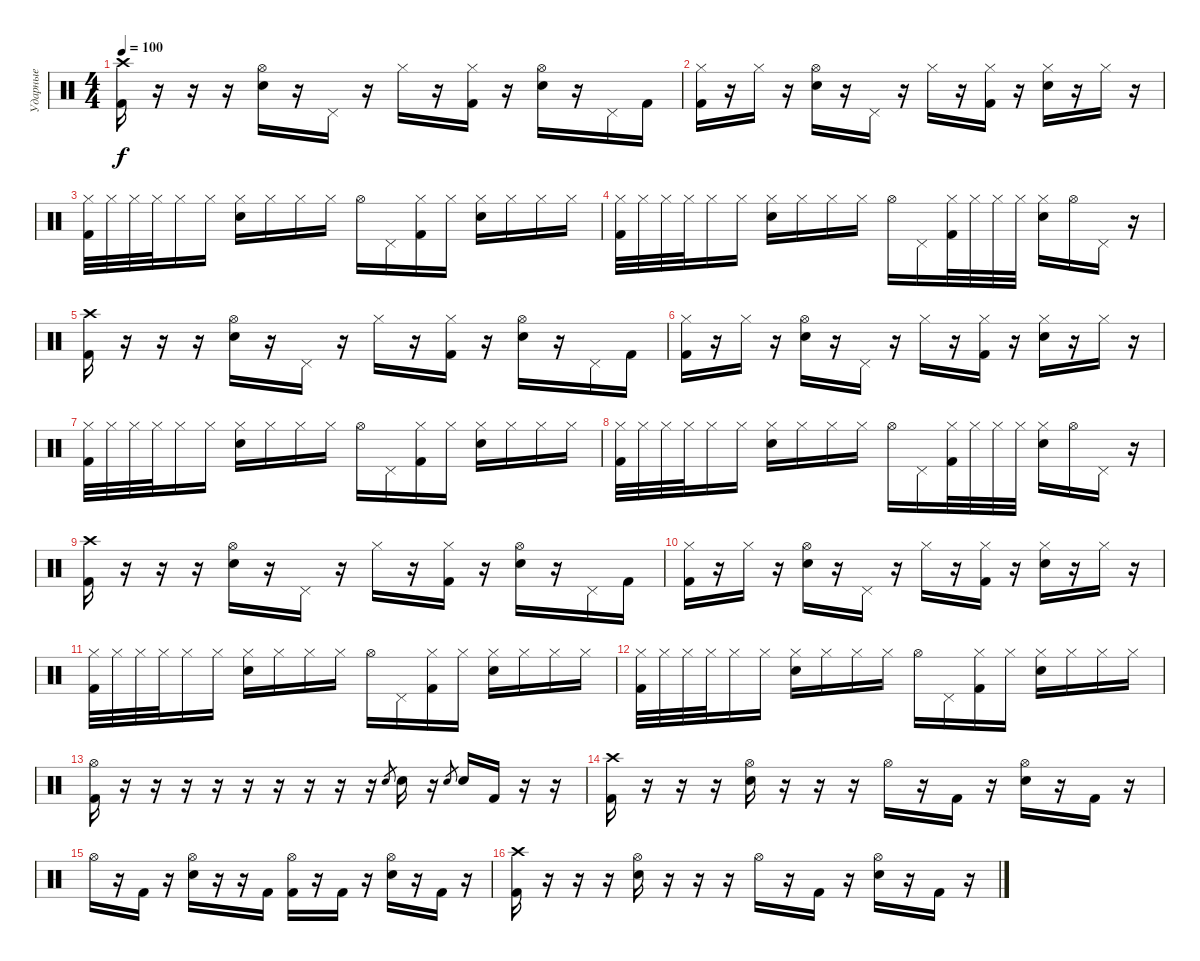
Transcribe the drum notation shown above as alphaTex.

\track ("Ударные" "Ударные") {instrument percussion}
\staff {score}
\articulation defaults
\ts (4 4)
\tempo 100
\clef neutral
\ks c
("Crash high (hit)" "Kick (hit) 2").16{dy f} r.16 r.16 r.16 ("Hi-Hat (open)" "Electric Snare (hit)").16 r.16 "Pedal Hi-Hat (hit)".16 r.16 "Hi-Hat (closed)".16 r.16 ("Hi-Hat (closed)" "Kick (hit) 2").16 r.16 ("Hi-Hat (open)" "Electric Snare (hit)").16 r.16 "Pedal Hi-Hat (hit)".16 "Kick (hit) 2".16 |
("Hi-Hat (closed)" "Kick (hit) 2").16 r.16 "Hi-Hat (closed)".16 r.16 ("Hi-Hat (open)" "Electric Snare (hit)").16 r.16 "Pedal Hi-Hat (hit)".16 r.16 "Hi-Hat (closed)".16 r.16 ("Hi-Hat (closed)" "Kick (hit) 2").16 r.16 ("Hi-Hat (closed)" "Electric Snare (hit)").16 r.16 "Hi-Hat (closed)".16 r.16 |
("Hi-Hat (closed)" "Kick (hit) 2").32 "Hi-Hat (closed)".32 "Hi-Hat (closed)".32 "Hi-Hat (closed)".32 "Hi-Hat (closed)".16 "Hi-Hat (closed)".16 ("Hi-Hat (closed)" "Electric Snare (hit)").16 "Hi-Hat (closed)".16 "Hi-Hat (closed)".16 "Hi-Hat (closed)".16 "Hi-Hat (open)".16 "Pedal Hi-Hat (hit)".16 ("Hi-Hat (closed)" "Kick (hit) 2").16 "Hi-Hat (closed)".16 ("Hi-Hat (closed)" "Electric Snare (hit)").16 "Hi-Hat (closed)".16 "Hi-Hat (closed)".16 "Hi-Hat (closed)".16 |
("Hi-Hat (closed)" "Kick (hit) 2").32 "Hi-Hat (closed)".32 "Hi-Hat (closed)".32 "Hi-Hat (closed)".32 "Hi-Hat (closed)".16 "Hi-Hat (closed)".16 ("Hi-Hat (closed)" "Electric Snare (hit)").16 "Hi-Hat (closed)".16 "Hi-Hat (closed)".16 "Hi-Hat (closed)".16 "Hi-Hat (open)".16 "Pedal Hi-Hat (hit)".16 ("Hi-Hat (closed)" "Kick (hit) 2").32 "Hi-Hat (closed)".32 "Hi-Hat (closed)".32 "Hi-Hat (closed)".32 ("Hi-Hat (closed)" "Electric Snare (hit)").16 "Hi-Hat (open)".16 "Pedal Hi-Hat (hit)".16 r.16 |
("Crash high (hit)" "Kick (hit) 2").16 r.16 r.16 r.16 ("Hi-Hat (open)" "Electric Snare (hit)").16 r.16 "Pedal Hi-Hat (hit)".16 r.16 "Hi-Hat (closed)".16 r.16 ("Hi-Hat (closed)" "Kick (hit) 2").16 r.16 ("Hi-Hat (open)" "Electric Snare (hit)").16 r.16 "Pedal Hi-Hat (hit)".16 "Kick (hit) 2".16 |
("Hi-Hat (closed)" "Kick (hit) 2").16 r.16 "Hi-Hat (closed)".16 r.16 ("Hi-Hat (open)" "Electric Snare (hit)").16 r.16 "Pedal Hi-Hat (hit)".16 r.16 "Hi-Hat (closed)".16 r.16 ("Hi-Hat (closed)" "Kick (hit) 2").16 r.16 ("Hi-Hat (closed)" "Electric Snare (hit)").16 r.16 "Hi-Hat (closed)".16 r.16 |
("Hi-Hat (closed)" "Kick (hit) 2").32 "Hi-Hat (closed)".32 "Hi-Hat (closed)".32 "Hi-Hat (closed)".32 "Hi-Hat (closed)".16 "Hi-Hat (closed)".16 ("Hi-Hat (closed)" "Electric Snare (hit)").16 "Hi-Hat (closed)".16 "Hi-Hat (closed)".16 "Hi-Hat (closed)".16 "Hi-Hat (open)".16 "Pedal Hi-Hat (hit)".16 ("Hi-Hat (closed)" "Kick (hit) 2").16 "Hi-Hat (closed)".16 ("Hi-Hat (closed)" "Electric Snare (hit)").16 "Hi-Hat (closed)".16 "Hi-Hat (closed)".16 "Hi-Hat (closed)".16 |
("Hi-Hat (closed)" "Kick (hit) 2").32 "Hi-Hat (closed)".32 "Hi-Hat (closed)".32 "Hi-Hat (closed)".32 "Hi-Hat (closed)".16 "Hi-Hat (closed)".16 ("Hi-Hat (closed)" "Electric Snare (hit)").16 "Hi-Hat (closed)".16 "Hi-Hat (closed)".16 "Hi-Hat (closed)".16 "Hi-Hat (open)".16 "Pedal Hi-Hat (hit)".16 ("Hi-Hat (closed)" "Kick (hit) 2").32 "Hi-Hat (closed)".32 "Hi-Hat (closed)".32 "Hi-Hat (closed)".32 ("Hi-Hat (closed)" "Electric Snare (hit)").16 "Hi-Hat (open)".16 "Pedal Hi-Hat (hit)".16 r.16 |
("Crash high (hit)" "Kick (hit) 2").16 r.16 r.16 r.16 ("Hi-Hat (open)" "Electric Snare (hit)").16 r.16 "Pedal Hi-Hat (hit)".16 r.16 "Hi-Hat (closed)".16 r.16 ("Hi-Hat (closed)" "Kick (hit) 2").16 r.16 ("Hi-Hat (open)" "Electric Snare (hit)").16 r.16 "Pedal Hi-Hat (hit)".16 "Kick (hit) 2".16 |
("Hi-Hat (closed)" "Kick (hit) 2").16 r.16 "Hi-Hat (closed)".16 r.16 ("Hi-Hat (open)" "Electric Snare (hit)").16 r.16 "Pedal Hi-Hat (hit)".16 r.16 "Hi-Hat (closed)".16 r.16 ("Hi-Hat (closed)" "Kick (hit) 2").16 r.16 ("Hi-Hat (closed)" "Electric Snare (hit)").16 r.16 "Hi-Hat (closed)".16 r.16 |
("Hi-Hat (closed)" "Kick (hit) 2").32 "Hi-Hat (closed)".32 "Hi-Hat (closed)".32 "Hi-Hat (closed)".32 "Hi-Hat (closed)".16 "Hi-Hat (closed)".16 ("Hi-Hat (closed)" "Electric Snare (hit)").16 "Hi-Hat (closed)".16 "Hi-Hat (closed)".16 "Hi-Hat (closed)".16 "Hi-Hat (open)".16 "Pedal Hi-Hat (hit)".16 ("Hi-Hat (closed)" "Kick (hit) 2").16 "Hi-Hat (closed)".16 ("Hi-Hat (closed)" "Electric Snare (hit)").16 "Hi-Hat (closed)".16 "Hi-Hat (closed)".16 "Hi-Hat (closed)".16 |
("Hi-Hat (closed)" "Kick (hit) 2").32 "Hi-Hat (closed)".32 "Hi-Hat (closed)".32 "Hi-Hat (closed)".32 "Hi-Hat (closed)".16 "Hi-Hat (closed)".16 ("Hi-Hat (closed)" "Electric Snare (hit)").16 "Hi-Hat (closed)".16 "Hi-Hat (closed)".16 "Hi-Hat (closed)".16 "Hi-Hat (open)".16 "Pedal Hi-Hat (hit)".16 ("Hi-Hat (closed)" "Kick (hit) 2").16 "Hi-Hat (closed)".16 ("Hi-Hat (closed)" "Electric Snare (hit)").16 "Hi-Hat (closed)".16 "Hi-Hat (closed)".16 "Hi-Hat (closed)".16 |
("Hi-Hat (open)" "Kick (hit) 2").16 r.16 r.16 r.16 r.16 r.16 r.16 r.16 r.16 r.16 "Electric Snare (hit)".8{gr} "Electric Snare (hit)".16 r.16 "Electric Snare (hit)".8{gr} "Electric Snare (hit)".16 "Kick (hit) 2".16 r.16 r.16 |
("Crash high (hit)" "Kick (hit) 2").16 r.16 r.16 r.16 ("Hi-Hat (open)" "Electric Snare (hit)").16 r.16 r.16 r.16 "Hi-Hat (open)".16 r.16 "Kick (hit) 2".16 r.16 ("Hi-Hat (open)" "Electric Snare (hit)").16 r.16 "Kick (hit) 2".16 r.16 |
"Hi-Hat (open)".16 r.16 "Kick (hit) 2".16 r.16 ("Hi-Hat (open)" "Electric Snare (hit)").16 r.16 r.16 "Kick (hit) 2".16 ("Hi-Hat (open)" "Kick (hit) 2").16 r.16 "Kick (hit) 2".16 r.16 ("Hi-Hat (open)" "Electric Snare (hit)").16 r.16 "Kick (hit) 2".16 r.16 |
("Crash high (hit)" "Kick (hit) 2").16 r.16 r.16 r.16 ("Hi-Hat (open)" "Electric Snare (hit)").16 r.16 r.16 r.16 "Hi-Hat (open)".16 r.16 "Kick (hit) 2".16 r.16 ("Hi-Hat (open)" "Electric Snare (hit)").16 r.16 "Kick (hit) 2".16 r.16
